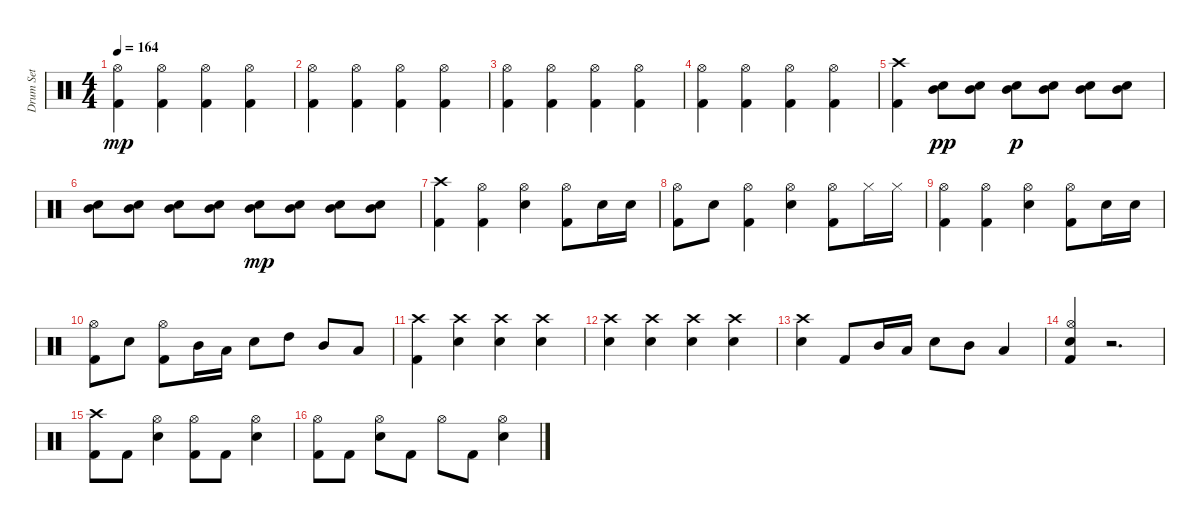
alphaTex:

\track ("Drum Set" "Drum Set") {instrument percussion}
\staff {score}
\articulation defaults
\ts (4 4)
\tempo 164
\clef neutral
\ks c
("Kick (hit) 2" "Hi-Hat (open)").4{dy mp} ("Kick (hit) 2" "Hi-Hat (open)").4 ("Kick (hit) 2" "Hi-Hat (open)").4 ("Kick (hit) 2" "Hi-Hat (open)").4 |
("Kick (hit) 2" "Hi-Hat (open)").4 ("Kick (hit) 2" "Hi-Hat (open)").4 ("Kick (hit) 2" "Hi-Hat (open)").4 ("Kick (hit) 2" "Hi-Hat (open)").4 |
("Kick (hit) 2" "Hi-Hat (open)").4 ("Kick (hit) 2" "Hi-Hat (open)").4 ("Kick (hit) 2" "Hi-Hat (open)").4 ("Kick (hit) 2" "Hi-Hat (open)").4 |
("Kick (hit) 2" "Hi-Hat (open)").4 ("Kick (hit) 2" "Hi-Hat (open)").4 ("Kick (hit) 2" "Hi-Hat (open)").4 ("Kick (hit) 2" "Hi-Hat (open)").4 |
("Kick (hit) 2" "Crash high (hit)").4 ("Snare (hit) 2" "Mid Tom (hit)").8{dy pp} ("Snare (hit) 2" "Mid Tom (hit)").8 ("Snare (hit) 2" "Mid Tom (hit)").8{dy p} ("Snare (hit) 2" "Mid Tom (hit)").8 ("Snare (hit) 2" "Mid Tom (hit)").8 ("Snare (hit) 2" "Mid Tom (hit)").8 |
("Snare (hit) 2" "Mid Tom (hit)").8 ("Snare (hit) 2" "Mid Tom (hit)").8 ("Snare (hit) 2" "Mid Tom (hit)").8 ("Snare (hit) 2" "Mid Tom (hit)").8 ("Snare (hit) 2" "Mid Tom (hit)").8{dy mp} ("Snare (hit) 2" "Mid Tom (hit)").8 ("Snare (hit) 2" "Mid Tom (hit)").8 ("Snare (hit) 2" "Mid Tom (hit)").8 |
("Kick (hit) 2" "Crash high (hit)").4 ("Kick (hit) 2" "Hi-Hat (open)").4 ("Snare (hit) 2" "Hi-Hat (open)").4 ("Kick (hit) 2" "Hi-Hat (open)").8 "Snare (hit) 2".16 "Snare (hit) 2".16 |
("Kick (hit) 2" "Hi-Hat (open)").8 "Snare (hit) 2".8 ("Kick (hit) 2" "Hi-Hat (open)").4 ("Snare (hit) 2" "Hi-Hat (open)").4 ("Kick (hit) 2" "Hi-Hat (open)").8 "Hi-Hat (closed)".16 "Hi-Hat (closed)".16 |
("Kick (hit) 2" "Hi-Hat (open)").4 ("Kick (hit) 2" "Hi-Hat (open)").4 ("Snare (hit) 2" "Hi-Hat (open)").4 ("Kick (hit) 2" "Hi-Hat (open)").8 "Snare (hit) 2".16 "Snare (hit) 2".16 |
("Kick (hit) 2" "Hi-Hat (open)").8 "Snare (hit) 2".8 ("Kick (hit) 2" "Hi-Hat (open)").8 "Mid Tom (hit)".16 "Low Tom (hit)".16 "Snare (hit) 2".8 "High Tom (hit)".8 "Mid Tom (hit)".8 "Low Tom (hit)".8 |
("Kick (hit) 2" "Crash high (hit)").4 ("Snare (hit) 2" "Crash high (hit)").4 ("Snare (hit) 2" "Crash high (hit)").4 ("Snare (hit) 2" "Crash high (hit)").4 |
("Snare (hit) 2" "Crash high (hit)").4 ("Snare (hit) 2" "Crash high (hit)").4 ("Snare (hit) 2" "Crash high (hit)").4 ("Snare (hit) 2" "Crash high (hit)").4 |
("Snare (hit) 2" "Crash high (hit)").4 "Kick (hit) 2".8 "Mid Tom (hit)".16 "Low Tom (hit)".16 "Snare (hit) 2".8 "Mid Tom (hit)".8 "Low Tom (hit)".4 |
("Kick (hit) 2" "Snare (hit) 2" "Hi-Hat (open)").4 r.2{d} |
("Kick (hit) 2" "Crash high (hit)").8 "Kick (hit) 2".8 ("Snare (hit) 2" "Hi-Hat (open)").4 ("Kick (hit) 2" "Hi-Hat (open)").8 "Kick (hit) 2".8 ("Snare (hit) 2" "Hi-Hat (open)").4 |
("Kick (hit) 2" "Hi-Hat (open)").8 "Kick (hit) 2".8 ("Snare (hit) 2" "Hi-Hat (open)").8 "Kick (hit) 2".8 "Hi-Hat (open)".8 "Kick (hit) 2".8 ("Snare (hit) 2" "Hi-Hat (open)").4
